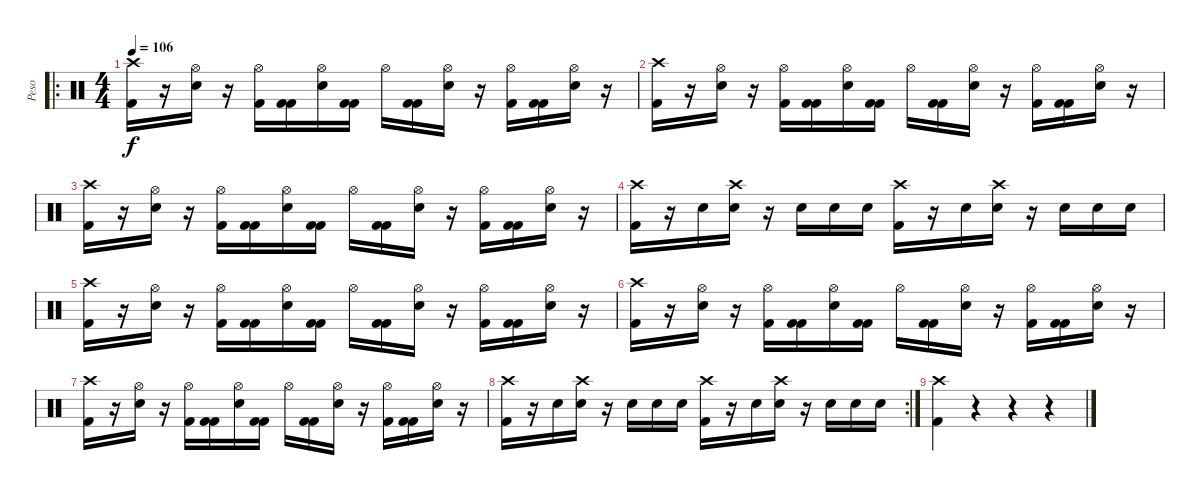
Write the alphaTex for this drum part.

\track ("Peso" "Peso") {instrument percussion}
\staff {score}
\articulation defaults
\ro
\ts (4 4)
\tempo 106
\clef neutral
\ks c
("Crash high (hit)" "Kick (hit) 2").16{dy f} r.16 ("Hi-Hat (open)" "Snare (hit) 2").16 r.16 ("Hi-Hat (open)" "Kick (hit) 2").16 ("Kick (hit) 2" "Kick (hit) 2").16 ("Hi-Hat (open)" "Snare (hit) 2").16 ("Kick (hit) 2" "Kick (hit) 2").16 "Hi-Hat (open)".16 ("Kick (hit) 2" "Kick (hit) 2").16 ("Hi-Hat (open)" "Snare (hit) 2").16 r.16 ("Hi-Hat (open)" "Kick (hit) 2").16 ("Kick (hit) 2" "Kick (hit) 2").16 ("Hi-Hat (open)" "Snare (hit) 2").16 r.16 |
("Crash high (hit)" "Kick (hit) 2").16 r.16 ("Hi-Hat (open)" "Snare (hit) 2").16 r.16 ("Hi-Hat (open)" "Kick (hit) 2").16 ("Kick (hit) 2" "Kick (hit) 2").16 ("Hi-Hat (open)" "Snare (hit) 2").16 ("Kick (hit) 2" "Kick (hit) 2").16 "Hi-Hat (open)".16 ("Kick (hit) 2" "Kick (hit) 2").16 ("Hi-Hat (open)" "Snare (hit) 2").16 r.16 ("Hi-Hat (open)" "Kick (hit) 2").16 ("Kick (hit) 2" "Kick (hit) 2").16 ("Hi-Hat (open)" "Snare (hit) 2").16 r.16 |
("Crash high (hit)" "Kick (hit) 2").16 r.16 ("Hi-Hat (open)" "Snare (hit) 2").16 r.16 ("Hi-Hat (open)" "Kick (hit) 2").16 ("Kick (hit) 2" "Kick (hit) 2").16 ("Hi-Hat (open)" "Snare (hit) 2").16 ("Kick (hit) 2" "Kick (hit) 2").16 "Hi-Hat (open)".16 ("Kick (hit) 2" "Kick (hit) 2").16 ("Hi-Hat (open)" "Snare (hit) 2").16 r.16 ("Hi-Hat (open)" "Kick (hit) 2").16 ("Kick (hit) 2" "Kick (hit) 2").16 ("Hi-Hat (open)" "Snare (hit) 2").16 r.16 |
("Crash high (hit)" "Kick (hit) 2").16 r.16 "Snare (hit) 2".16 ("Crash high (hit)" "Snare (hit) 2").16 r.16 "Snare (hit) 2".16 "Snare (hit) 2".16 "Snare (hit) 2".16 ("Crash high (hit)" "Kick (hit) 2").16 r.16 "Snare (hit) 2".16 ("Crash high (hit)" "Snare (hit) 2").16 r.16 "Snare (hit) 2".16 "Snare (hit) 2".16 "Snare (hit) 2".16 |
("Crash high (hit)" "Kick (hit) 2").16 r.16 ("Hi-Hat (open)" "Snare (hit) 2").16 r.16 ("Hi-Hat (open)" "Kick (hit) 2").16 ("Kick (hit) 2" "Kick (hit) 2").16 ("Hi-Hat (open)" "Snare (hit) 2").16 ("Kick (hit) 2" "Kick (hit) 2").16 "Hi-Hat (open)".16 ("Kick (hit) 2" "Kick (hit) 2").16 ("Hi-Hat (open)" "Snare (hit) 2").16 r.16 ("Hi-Hat (open)" "Kick (hit) 2").16 ("Kick (hit) 2" "Kick (hit) 2").16 ("Hi-Hat (open)" "Snare (hit) 2").16 r.16 |
("Crash high (hit)" "Kick (hit) 2").16 r.16 ("Hi-Hat (open)" "Snare (hit) 2").16 r.16 ("Hi-Hat (open)" "Kick (hit) 2").16 ("Kick (hit) 2" "Kick (hit) 2").16 ("Hi-Hat (open)" "Snare (hit) 2").16 ("Kick (hit) 2" "Kick (hit) 2").16 "Hi-Hat (open)".16 ("Kick (hit) 2" "Kick (hit) 2").16 ("Hi-Hat (open)" "Snare (hit) 2").16 r.16 ("Hi-Hat (open)" "Kick (hit) 2").16 ("Kick (hit) 2" "Kick (hit) 2").16 ("Hi-Hat (open)" "Snare (hit) 2").16 r.16 |
("Crash high (hit)" "Kick (hit) 2").16 r.16 ("Hi-Hat (open)" "Snare (hit) 2").16 r.16 ("Hi-Hat (open)" "Kick (hit) 2").16 ("Kick (hit) 2" "Kick (hit) 2").16 ("Hi-Hat (open)" "Snare (hit) 2").16 ("Kick (hit) 2" "Kick (hit) 2").16 "Hi-Hat (open)".16 ("Kick (hit) 2" "Kick (hit) 2").16 ("Hi-Hat (open)" "Snare (hit) 2").16 r.16 ("Hi-Hat (open)" "Kick (hit) 2").16 ("Kick (hit) 2" "Kick (hit) 2").16 ("Hi-Hat (open)" "Snare (hit) 2").16 r.16 |
\rc 2
("Crash high (hit)" "Kick (hit) 2").16 r.16 "Snare (hit) 2".16 ("Crash high (hit)" "Snare (hit) 2").16 r.16 "Snare (hit) 2".16 "Snare (hit) 2".16 "Snare (hit) 2".16 ("Crash high (hit)" "Kick (hit) 2").16 r.16 "Snare (hit) 2".16 ("Crash high (hit)" "Snare (hit) 2").16 r.16 "Snare (hit) 2".16 "Snare (hit) 2".16 "Snare (hit) 2".16 |
("Crash high (hit)" "Kick (hit) 2").4 r.4 r.4 r.4
